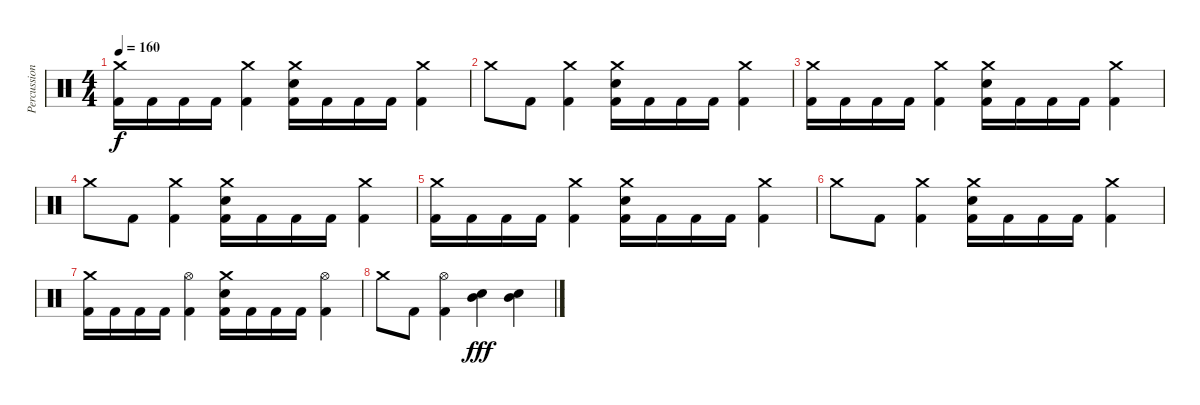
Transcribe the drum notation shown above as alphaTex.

\track ("Percussion" "Percussion") {instrument percussion}
\staff {score}
\articulation defaults
\ts (4 4)
\tempo 160
\clef neutral
\ks c
("Crash medium (hit)" "Kick (hit) 2").16{dy f} "Kick (hit) 2".16 "Kick (hit) 2".16 "Kick (hit) 2".16 ("Crash medium (hit)" "Kick (hit) 2").4 ("Crash medium (hit)" "Electric Snare (hit)" "Kick (hit) 2").16 "Kick (hit) 2".16 "Kick (hit) 2".16 "Kick (hit) 2".16 ("Crash medium (hit)" "Kick (hit) 2").4 |
"Crash medium (hit)".8 "Kick (hit) 2".8 ("Crash medium (hit)" "Kick (hit) 2").4 ("Crash medium (hit)" "Electric Snare (hit)" "Kick (hit) 2").16 "Kick (hit) 2".16 "Kick (hit) 2".16 "Kick (hit) 2".16 ("Crash medium (hit)" "Kick (hit) 2").4 |
("Crash medium (hit)" "Kick (hit) 2").16 "Kick (hit) 2".16 "Kick (hit) 2".16 "Kick (hit) 2".16 ("Crash medium (hit)" "Kick (hit) 2").4 ("Crash medium (hit)" "Electric Snare (hit)" "Kick (hit) 2").16 "Kick (hit) 2".16 "Kick (hit) 2".16 "Kick (hit) 2".16 ("Crash medium (hit)" "Kick (hit) 2").4 |
"Crash medium (hit)".8 "Kick (hit) 2".8 ("Crash medium (hit)" "Kick (hit) 2").4 ("Crash medium (hit)" "Electric Snare (hit)" "Kick (hit) 2").16 "Kick (hit) 2".16 "Kick (hit) 2".16 "Kick (hit) 2".16 ("Crash medium (hit)" "Kick (hit) 2").4 |
("Crash medium (hit)" "Kick (hit) 2").16 "Kick (hit) 2".16 "Kick (hit) 2".16 "Kick (hit) 2".16 ("Crash medium (hit)" "Kick (hit) 2").4 ("Crash medium (hit)" "Electric Snare (hit)" "Kick (hit) 2").16 "Kick (hit) 2".16 "Kick (hit) 2".16 "Kick (hit) 2".16 ("Crash medium (hit)" "Kick (hit) 2").4 |
"Crash medium (hit)".8 "Kick (hit) 2".8 ("Crash medium (hit)" "Kick (hit) 2").4 ("Crash medium (hit)" "Electric Snare (hit)" "Kick (hit) 2").16 "Kick (hit) 2".16 "Kick (hit) 2".16 "Kick (hit) 2".16 ("Crash medium (hit)" "Kick (hit) 2").4 |
("Crash medium (hit)" "Kick (hit) 2").16 "Kick (hit) 2".16 "Kick (hit) 2".16 "Kick (hit) 2".16 ("Hi-Hat (open)" "Kick (hit) 2").4 ("Crash medium (hit)" "Electric Snare (hit)" "Kick (hit) 2").16 "Kick (hit) 2".16 "Kick (hit) 2".16 "Kick (hit) 2".16 ("Hi-Hat (open)" "Kick (hit) 2").4 |
"Crash medium (hit)".8 "Kick (hit) 2".8 ("Hi-Hat (open)" "Kick (hit) 2").4 ("Mid Tom (hit)" "Electric Snare (hit)").4{dy fff} ("Mid Tom (hit)" "Electric Snare (hit)").4
